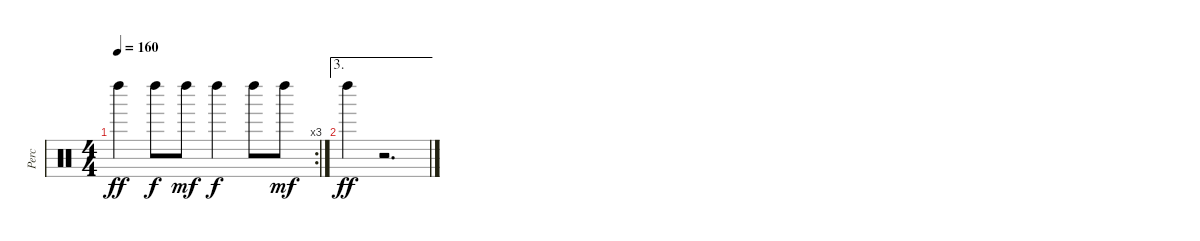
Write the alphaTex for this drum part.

\track ("Perc" "Perc") {instrument percussion}
\staff {score}
\articulation defaults
\rc 3
\ts (4 4)
\tempo 160
\clef neutral
\ks c "Left Maraca (hit)".4{dy ff} "Left Maraca (hit)".8{dy f} "Left Maraca (hit)".8{dy mf} "Left Maraca (hit)".4{dy f} "Left Maraca (hit)".8 "Left Maraca (hit)".8{dy mf}
|
\ae 3 "Left Maraca (hit)".4{dy ff}
r.2{d}
